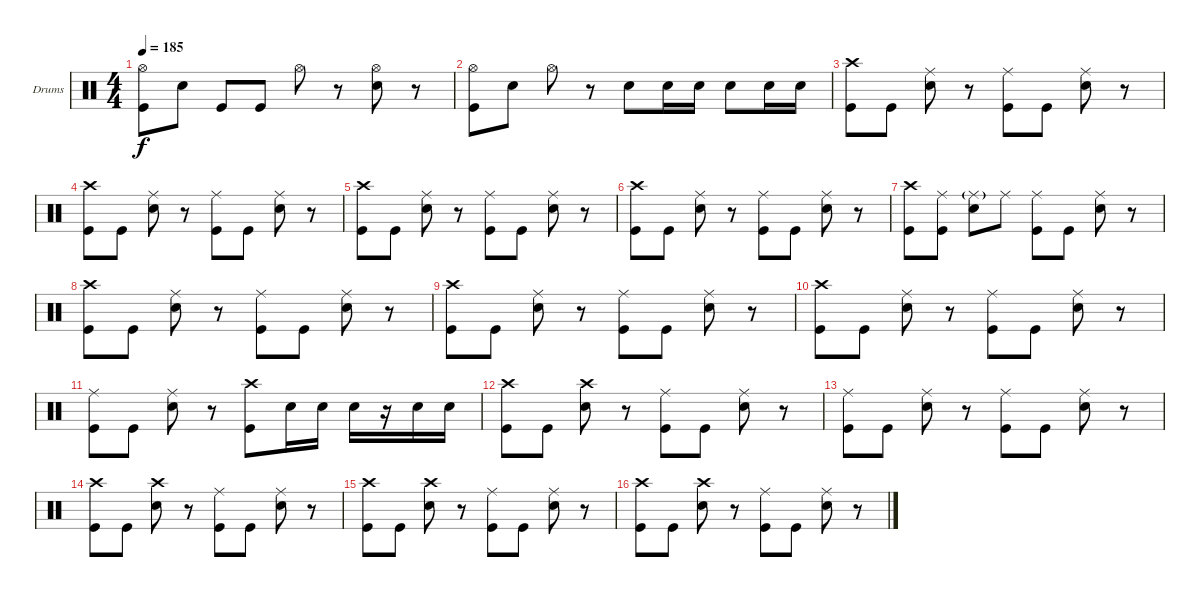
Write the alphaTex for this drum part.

\defaultSystemsLayout 4
\bracketExtendMode nobrackets
\firstSystemTrackNameOrientation horizontal
\otherSystemsTrackNameOrientation horizontal
\track ("Drumkit" "Drums") {instrument percussion}
\staff {score}
\articulation defaults
\ts (4 4)
\tempo 185
\clef neutral
\ks c
("Hi-Hat (open)" "Kick (hit)").8{dy f} "Snare (hit) 2".8 "Kick (hit)".8 "Kick (hit)".8 "Hi-Hat (open)".8 r.8 ("Hi-Hat (open)" "Snare (hit) 2").8 r.8 |
("Hi-Hat (open)" "Kick (hit)").8 "Snare (hit) 2".8 "Hi-Hat (open)".8 r.8 "Snare (hit) 2".8 "Snare (hit) 2".16 "Snare (hit) 2".16 "Snare (hit) 2".8 "Snare (hit) 2".16 "Snare (hit) 2".16 |
("Crash high (hit)" "Kick (hit)").8 "Kick (hit)".8 ("Ride (middle)" "Snare (hit) 2").8 r.8 ("Ride (middle)" "Kick (hit)").8 "Kick (hit)".8 ("Ride (middle)" "Snare (hit) 2").8 r.8 |
("Crash high (hit)" "Kick (hit)").8 "Kick (hit)".8 ("Ride (middle)" "Snare (hit) 2").8 r.8 ("Ride (middle)" "Kick (hit)").8 "Kick (hit)".8 ("Ride (middle)" "Snare (hit) 2").8 r.8 |
("Crash high (hit)" "Kick (hit)").8 "Kick (hit)".8 ("Ride (middle)" "Snare (hit) 2").8 r.8 ("Ride (middle)" "Kick (hit)").8 "Kick (hit)".8 ("Ride (middle)" "Snare (hit) 2").8 r.8 |
("Crash high (hit)" "Kick (hit)").8 "Kick (hit)".8 ("Ride (middle)" "Snare (hit) 2").8 r.8 ("Ride (middle)" "Kick (hit)").8 "Kick (hit)".8 ("Ride (middle)" "Snare (hit) 2").8 r.8 |
("Crash high (hit)" "Kick (hit)").8 ("Ride (middle)" "Kick (hit)").8 ("Ride (middle)"{g} "Snare (hit) 2").8 "Ride (middle)".8 ("Ride (middle)" "Kick (hit)").8 "Kick (hit)".8 ("Ride (middle)" "Snare (hit) 2").8 r.8 |
("Crash high (hit)" "Kick (hit)").8 "Kick (hit)".8 ("Ride (middle)" "Snare (hit) 2").8 r.8 ("Ride (middle)" "Kick (hit)").8 "Kick (hit)".8 ("Ride (middle)" "Snare (hit) 2").8 r.8 |
("Crash high (hit)" "Kick (hit)").8 "Kick (hit)".8 ("Ride (middle)" "Snare (hit) 2").8 r.8 ("Ride (middle)" "Kick (hit)").8 "Kick (hit)".8 ("Ride (middle)" "Snare (hit) 2").8 r.8 |
("Crash high (hit)" "Kick (hit)").8 "Kick (hit)".8 ("Ride (middle)" "Snare (hit) 2").8 r.8 ("Ride (middle)" "Kick (hit)").8 "Kick (hit)".8 ("Ride (middle)" "Snare (hit) 2").8 r.8 |
("Ride (middle)" "Kick (hit)").8 "Kick (hit)".8 ("Ride (middle)" "Snare (hit) 2").8 r.8 ("Crash high (hit)" "Kick (hit)").8 "Snare (hit) 2".16 "Snare (hit) 2".16 "Snare (hit) 2".16 r.16 "Snare (hit) 2".16 "Snare (hit) 2".16 |
("Crash high (hit)" "Kick (hit)").8 "Kick (hit)".8 ("Crash high (hit)" "Snare (hit) 2").8 r.8 ("Ride (middle)" "Kick (hit)").8 "Kick (hit)".8 ("Ride (middle)" "Snare (hit) 2").8 r.8 |
("Ride (middle)" "Kick (hit)").8 "Kick (hit)".8 ("Ride (middle)" "Snare (hit) 2").8 r.8 ("Ride (middle)" "Kick (hit)").8 "Kick (hit)".8 ("Ride (middle)" "Snare (hit) 2").8 r.8 |
("Crash high (hit)" "Kick (hit)").8 "Kick (hit)".8 ("Crash high (hit)" "Snare (hit) 2").8 r.8 ("Ride (middle)" "Kick (hit)").8 "Kick (hit)".8 ("Ride (middle)" "Snare (hit) 2").8 r.8 |
("Crash high (hit)" "Kick (hit)").8 "Kick (hit)".8 ("Crash high (hit)" "Snare (hit) 2").8 r.8 ("Ride (middle)" "Kick (hit)").8 "Kick (hit)".8 ("Ride (middle)" "Snare (hit) 2").8 r.8 |
("Crash high (hit)" "Kick (hit)").8 "Kick (hit)".8 ("Crash high (hit)" "Snare (hit) 2").8 r.8 ("Ride (middle)" "Kick (hit)").8 "Kick (hit)".8 ("Ride (middle)" "Snare (hit) 2").8 r.8
